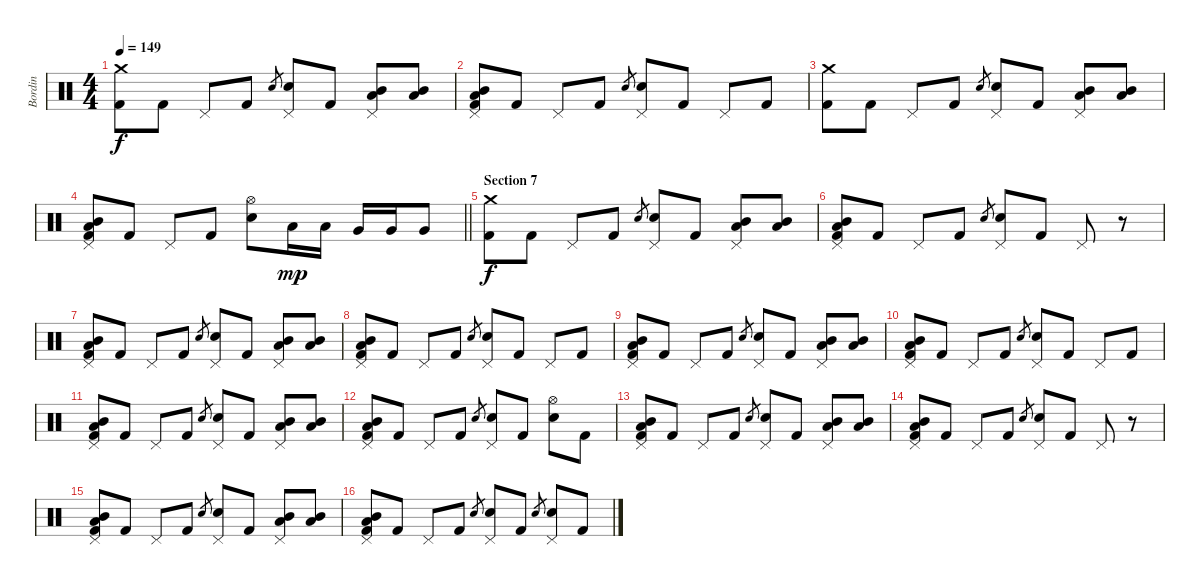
\track ("Bordin" "Bordin") {instrument percussion}
\staff {score}
\articulation defaults
\ts (4 4)
\tempo 149
\clef neutral
\ks c
("Crash medium (hit)" "Kick (hit) 2").8{dy f} "Kick (hit) 2".8 "Pedal Hi-Hat (hit)".8 "Kick (hit) 2".8 "Electric Snare (hit)".8{gr} ("Pedal Hi-Hat (hit)" "Electric Snare (hit)").8 "Kick (hit) 2".8 ("Low Tom (hit)" "Mid Tom (hit)" "Pedal Hi-Hat (hit)").8 ("Low Tom (hit)" "Mid Tom (hit)").8 |
("Mid Tom (hit)" "Low Tom (hit)" "Pedal Hi-Hat (hit)" "Kick (hit) 2").8 "Kick (hit) 2".8 "Pedal Hi-Hat (hit)".8 "Kick (hit) 2".8 "Electric Snare (hit)".8{gr} ("Pedal Hi-Hat (hit)" "Electric Snare (hit)").8 "Kick (hit) 2".8 "Pedal Hi-Hat (hit)".8 "Kick (hit) 2".8 |
("Crash medium (hit)" "Kick (hit) 2").8 "Kick (hit) 2".8 "Pedal Hi-Hat (hit)".8 "Kick (hit) 2".8 "Electric Snare (hit)".8{gr} ("Pedal Hi-Hat (hit)" "Electric Snare (hit)").8 "Kick (hit) 2".8 ("Low Tom (hit)" "Mid Tom (hit)" "Pedal Hi-Hat (hit)").8 ("Low Tom (hit)" "Mid Tom (hit)").8 |
\barLineRight lightlight
("Mid Tom (hit)" "Low Tom (hit)" "Pedal Hi-Hat (hit)" "Kick (hit) 2").8 "Kick (hit) 2".8 "Pedal Hi-Hat (hit)".8 "Kick (hit) 2".8 ("Hi-Hat (open)" "Electric Snare (hit)").8 "Low Tom (hit)".16{dy mp} "Low Tom (hit)".16 "Very Low Tom (hit)".16 "Very Low Tom (hit)".16 "Very Low Tom (hit)".8 |
\section ("" "Section 7")
("Crash medium (hit)" "Kick (hit) 2").8{dy f} "Kick (hit) 2".8 "Pedal Hi-Hat (hit)".8 "Kick (hit) 2".8 "Electric Snare (hit)".8{gr} ("Pedal Hi-Hat (hit)" "Electric Snare (hit)").8 "Kick (hit) 2".8 ("Low Tom (hit)" "Mid Tom (hit)" "Pedal Hi-Hat (hit)").8 ("Low Tom (hit)" "Mid Tom (hit)").8 |
("Mid Tom (hit)" "Low Tom (hit)" "Pedal Hi-Hat (hit)" "Kick (hit) 2").8 "Kick (hit) 2".8 "Pedal Hi-Hat (hit)".8 "Kick (hit) 2".8 "Electric Snare (hit)".8{gr} ("Pedal Hi-Hat (hit)" "Electric Snare (hit)").8 "Kick (hit) 2".8 "Pedal Hi-Hat (hit)".8 r.8 |
("Mid Tom (hit)" "Low Tom (hit)" "Pedal Hi-Hat (hit)" "Kick (hit) 2").8 "Kick (hit) 2".8 "Pedal Hi-Hat (hit)".8 "Kick (hit) 2".8 "Electric Snare (hit)".8{gr} ("Pedal Hi-Hat (hit)" "Electric Snare (hit)").8 "Kick (hit) 2".8 ("Low Tom (hit)" "Mid Tom (hit)" "Pedal Hi-Hat (hit)").8 ("Low Tom (hit)" "Mid Tom (hit)").8 |
("Mid Tom (hit)" "Low Tom (hit)" "Pedal Hi-Hat (hit)" "Kick (hit) 2").8 "Kick (hit) 2".8 "Pedal Hi-Hat (hit)".8 "Kick (hit) 2".8 "Electric Snare (hit)".8{gr} ("Pedal Hi-Hat (hit)" "Electric Snare (hit)").8 "Kick (hit) 2".8 "Pedal Hi-Hat (hit)".8 "Kick (hit) 2".8 |
("Mid Tom (hit)" "Low Tom (hit)" "Pedal Hi-Hat (hit)" "Kick (hit) 2").8 "Kick (hit) 2".8 "Pedal Hi-Hat (hit)".8 "Kick (hit) 2".8 "Electric Snare (hit)".8{gr} ("Pedal Hi-Hat (hit)" "Electric Snare (hit)").8 "Kick (hit) 2".8 ("Low Tom (hit)" "Mid Tom (hit)" "Pedal Hi-Hat (hit)").8 ("Low Tom (hit)" "Mid Tom (hit)").8 |
("Mid Tom (hit)" "Low Tom (hit)" "Pedal Hi-Hat (hit)" "Kick (hit) 2").8 "Kick (hit) 2".8 "Pedal Hi-Hat (hit)".8 "Kick (hit) 2".8 "Electric Snare (hit)".8{gr} ("Pedal Hi-Hat (hit)" "Electric Snare (hit)").8 "Kick (hit) 2".8 "Pedal Hi-Hat (hit)".8 "Kick (hit) 2".8 |
("Mid Tom (hit)" "Low Tom (hit)" "Pedal Hi-Hat (hit)" "Kick (hit) 2").8 "Kick (hit) 2".8 "Pedal Hi-Hat (hit)".8 "Kick (hit) 2".8 "Electric Snare (hit)".8{gr} ("Pedal Hi-Hat (hit)" "Electric Snare (hit)").8 "Kick (hit) 2".8 ("Low Tom (hit)" "Mid Tom (hit)" "Pedal Hi-Hat (hit)").8 ("Low Tom (hit)" "Mid Tom (hit)").8 |
("Mid Tom (hit)" "Low Tom (hit)" "Pedal Hi-Hat (hit)" "Kick (hit) 2").8 "Kick (hit) 2".8 "Pedal Hi-Hat (hit)".8 "Kick (hit) 2".8 "Electric Snare (hit)".8{gr} ("Pedal Hi-Hat (hit)" "Electric Snare (hit)").8 "Kick (hit) 2".8 ("Hi-Hat (open)" "Electric Snare (hit)").8 "Kick (hit) 2".8 |
("Mid Tom (hit)" "Low Tom (hit)" "Pedal Hi-Hat (hit)" "Kick (hit) 2").8 "Kick (hit) 2".8 "Pedal Hi-Hat (hit)".8 "Kick (hit) 2".8 "Electric Snare (hit)".8{gr} ("Pedal Hi-Hat (hit)" "Electric Snare (hit)").8 "Kick (hit) 2".8 ("Low Tom (hit)" "Mid Tom (hit)" "Pedal Hi-Hat (hit)").8 ("Low Tom (hit)" "Mid Tom (hit)").8 |
("Mid Tom (hit)" "Low Tom (hit)" "Pedal Hi-Hat (hit)" "Kick (hit) 2").8 "Kick (hit) 2".8 "Pedal Hi-Hat (hit)".8 "Kick (hit) 2".8 "Electric Snare (hit)".8{gr} ("Pedal Hi-Hat (hit)" "Electric Snare (hit)").8 "Kick (hit) 2".8 "Pedal Hi-Hat (hit)".8 r.8 |
("Mid Tom (hit)" "Low Tom (hit)" "Pedal Hi-Hat (hit)" "Kick (hit) 2").8 "Kick (hit) 2".8 "Pedal Hi-Hat (hit)".8 "Kick (hit) 2".8 "Electric Snare (hit)".8{gr} ("Pedal Hi-Hat (hit)" "Electric Snare (hit)").8 "Kick (hit) 2".8 ("Low Tom (hit)" "Mid Tom (hit)" "Pedal Hi-Hat (hit)").8 ("Low Tom (hit)" "Mid Tom (hit)").8 |
("Mid Tom (hit)" "Low Tom (hit)" "Pedal Hi-Hat (hit)" "Kick (hit) 2").8 "Kick (hit) 2".8 "Pedal Hi-Hat (hit)".8 "Kick (hit) 2".8 "Electric Snare (hit)".8{gr} ("Pedal Hi-Hat (hit)" "Electric Snare (hit)").8 "Kick (hit) 2".8 "Electric Snare (hit)".8{gr} ("Pedal Hi-Hat (hit)" "Electric Snare (hit)").8 "Kick (hit) 2".8
